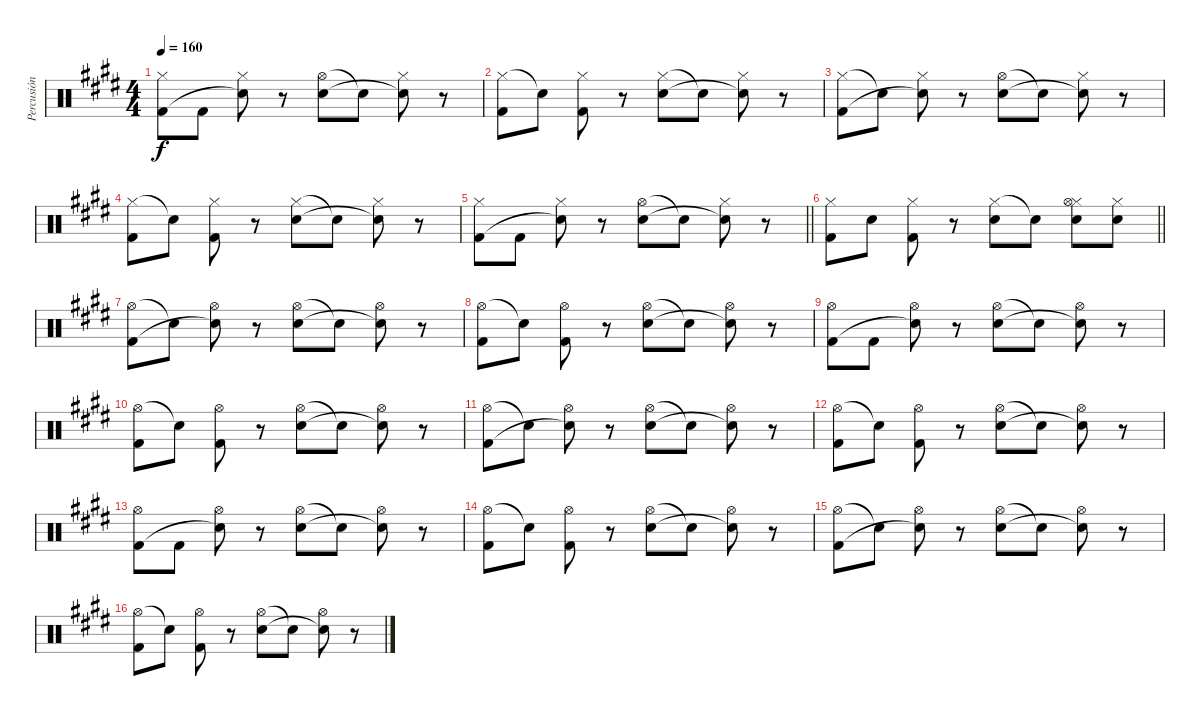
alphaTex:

\track ("Percusión" "Percusión") {instrument percussion}
\staff {score}
\articulation defaults
\ts (4 4)
\tempo 160
\clef neutral
\ks e
("Hi-Hat (closed)" "Kick (hit) 2").8{dy f} "Kick (hit) 2".8 ("Hi-Hat (closed)" "Snare (hit) 2"{t}).8 r.8 ("Hi-Hat (open)" "Electric Snare (hit)").8 "Snare (hit) 2"{t}.8 ("Hi-Hat (closed)" "Snare (hit) 2"{t}).8 r.8 |
("Hi-Hat (closed)" "Kick (hit) 2").8 "Snare (hit) 2"{t}.8 ("Hi-Hat (closed)" "Kick (hit) 2").8 r.8 ("Hi-Hat (closed)" "Electric Snare (hit)").8 "Snare (hit) 2"{t}.8 ("Hi-Hat (closed)" "Snare (hit) 2"{t}).8 r.8 |
("Hi-Hat (closed)" "Kick (hit) 2").8 "Snare (hit) 2"{t}.8 ("Hi-Hat (closed)" "Snare (hit) 2"{t}).8 r.8 ("Hi-Hat (open)" "Electric Snare (hit)").8 "Snare (hit) 2"{t}.8 ("Hi-Hat (closed)" "Snare (hit) 2"{t}).8 r.8 |
("Hi-Hat (closed)" "Kick (hit) 2").8 "Snare (hit) 2"{t}.8 ("Hi-Hat (closed)" "Kick (hit) 2").8 r.8 ("Hi-Hat (closed)" "Electric Snare (hit)").8 "Snare (hit) 2"{t}.8 ("Hi-Hat (closed)" "Snare (hit) 2"{t}).8 r.8 |
\barLineRight lightlight
("Hi-Hat (closed)" "Kick (hit) 2").8 "Kick (hit) 2".8 ("Hi-Hat (closed)" "Snare (hit) 2"{t}).8 r.8 ("Hi-Hat (open)" "Electric Snare (hit)").8 "Snare (hit) 2"{t}.8 ("Hi-Hat (closed)" "Snare (hit) 2"{t}).8 r.8 |
\barLineRight lightlight
("Hi-Hat (closed)" "Kick (hit) 2").8 "Electric Snare (hit)".8 ("Hi-Hat (closed)" "Kick (hit) 2").8 r.8 ("Hi-Hat (closed)" "Electric Snare (hit)").8 "Snare (hit) 2"{t}.8 ("Hi-Hat (closed)" "Hi-Hat (open)" "Electric Snare (hit)").8 ("Hi-Hat (closed)" "Electric Snare (hit)").8 |
\section ("" "")
("Hi-Hat (open)" "Kick (hit) 2").8 "Snare (hit) 2"{t}.8 ("Hi-Hat (open)" "Snare (hit) 2"{t}).8 r.8 ("Hi-Hat (open)" "Electric Snare (hit)").8 "Snare (hit) 2"{t}.8 ("Hi-Hat (open)" "Snare (hit) 2"{t}).8 r.8 |
("Hi-Hat (open)" "Kick (hit) 2").8 "Snare (hit) 2"{t}.8 ("Hi-Hat (open)" "Kick (hit) 2").8 r.8 ("Hi-Hat (open)" "Electric Snare (hit)").8 "Snare (hit) 2"{t}.8 ("Hi-Hat (open)" "Snare (hit) 2"{t}).8 r.8 |
("Hi-Hat (open)" "Kick (hit) 2").8 "Kick (hit) 2".8 ("Hi-Hat (open)" "Snare (hit) 2"{t}).8 r.8 ("Hi-Hat (open)" "Electric Snare (hit)").8 "Snare (hit) 2"{t}.8 ("Hi-Hat (open)" "Snare (hit) 2"{t}).8 r.8 |
("Hi-Hat (open)" "Kick (hit) 2").8 "Snare (hit) 2"{t}.8 ("Hi-Hat (open)" "Kick (hit) 2").8 r.8 ("Hi-Hat (open)" "Electric Snare (hit)").8 "Snare (hit) 2"{t}.8 ("Hi-Hat (open)" "Snare (hit) 2"{t}).8 r.8 |
("Hi-Hat (open)" "Kick (hit) 2").8 "Snare (hit) 2"{t}.8 ("Hi-Hat (open)" "Snare (hit) 2"{t}).8 r.8 ("Hi-Hat (open)" "Electric Snare (hit)").8 "Snare (hit) 2"{t}.8 ("Hi-Hat (open)" "Snare (hit) 2"{t}).8 r.8 |
("Hi-Hat (open)" "Kick (hit) 2").8 "Snare (hit) 2"{t}.8 ("Hi-Hat (open)" "Kick (hit) 2").8 r.8 ("Hi-Hat (open)" "Electric Snare (hit)").8 "Snare (hit) 2"{t}.8 ("Hi-Hat (open)" "Snare (hit) 2"{t}).8 r.8 |
("Hi-Hat (open)" "Kick (hit) 2").8 "Kick (hit) 2".8 ("Hi-Hat (open)" "Snare (hit) 2"{t}).8 r.8 ("Hi-Hat (open)" "Electric Snare (hit)").8 "Snare (hit) 2"{t}.8 ("Hi-Hat (open)" "Snare (hit) 2"{t}).8 r.8 |
("Hi-Hat (open)" "Kick (hit) 2").8 "Snare (hit) 2"{t}.8 ("Hi-Hat (open)" "Kick (hit) 2").8 r.8 ("Hi-Hat (open)" "Electric Snare (hit)").8 "Snare (hit) 2"{t}.8 ("Hi-Hat (open)" "Snare (hit) 2"{t}).8 r.8 |
("Hi-Hat (open)" "Kick (hit) 2").8 "Snare (hit) 2"{t}.8 ("Hi-Hat (open)" "Snare (hit) 2"{t}).8 r.8 ("Hi-Hat (open)" "Electric Snare (hit)").8 "Snare (hit) 2"{t}.8 ("Hi-Hat (open)" "Snare (hit) 2"{t}).8 r.8 |
("Hi-Hat (open)" "Kick (hit) 2").8 "Snare (hit) 2"{t}.8 ("Hi-Hat (open)" "Kick (hit) 2").8 r.8 ("Hi-Hat (open)" "Electric Snare (hit)").8 "Snare (hit) 2"{t}.8 ("Hi-Hat (open)" "Snare (hit) 2"{t}).8 r.8
